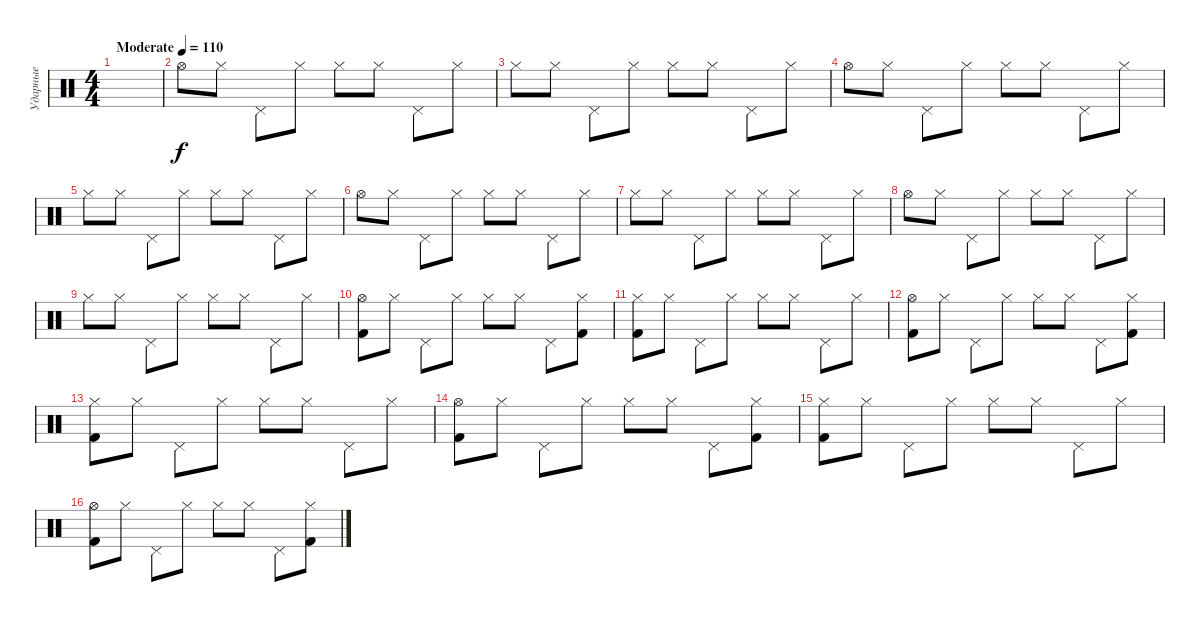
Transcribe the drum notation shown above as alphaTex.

\track ("Ударные" "Ударные") {instrument percussion}
\staff {score}
\articulation defaults
\ts (4 4)
\tempo (110 "Moderate")
\clef neutral
\ks c
|
"Hi-Hat (open)".8 "Hi-Hat (closed)".8 "Pedal Hi-Hat (hit)".8 "Hi-Hat (closed)".8 "Hi-Hat (closed)".8 "Hi-Hat (closed)".8 "Pedal Hi-Hat (hit)".8 "Hi-Hat (closed)".8 |
"Hi-Hat (closed)".8 "Hi-Hat (closed)".8 "Pedal Hi-Hat (hit)".8 "Hi-Hat (closed)".8 "Hi-Hat (closed)".8 "Hi-Hat (closed)".8 "Pedal Hi-Hat (hit)".8 "Hi-Hat (closed)".8 |
"Hi-Hat (open)".8 "Hi-Hat (closed)".8 "Pedal Hi-Hat (hit)".8 "Hi-Hat (closed)".8 "Hi-Hat (closed)".8 "Hi-Hat (closed)".8 "Pedal Hi-Hat (hit)".8 "Hi-Hat (closed)".8 |
"Hi-Hat (closed)".8 "Hi-Hat (closed)".8 "Pedal Hi-Hat (hit)".8 "Hi-Hat (closed)".8 "Hi-Hat (closed)".8 "Hi-Hat (closed)".8 "Pedal Hi-Hat (hit)".8 "Hi-Hat (closed)".8 |
"Hi-Hat (open)".8 "Hi-Hat (closed)".8 "Pedal Hi-Hat (hit)".8 "Hi-Hat (closed)".8 "Hi-Hat (closed)".8 "Hi-Hat (closed)".8 "Pedal Hi-Hat (hit)".8 "Hi-Hat (closed)".8 |
"Hi-Hat (closed)".8 "Hi-Hat (closed)".8 "Pedal Hi-Hat (hit)".8 "Hi-Hat (closed)".8 "Hi-Hat (closed)".8 "Hi-Hat (closed)".8 "Pedal Hi-Hat (hit)".8 "Hi-Hat (closed)".8 |
"Hi-Hat (open)".8 "Hi-Hat (closed)".8 "Pedal Hi-Hat (hit)".8 "Hi-Hat (closed)".8 "Hi-Hat (closed)".8 "Hi-Hat (closed)".8 "Pedal Hi-Hat (hit)".8 "Hi-Hat (closed)".8 |
"Hi-Hat (closed)".8 "Hi-Hat (closed)".8 "Pedal Hi-Hat (hit)".8 "Hi-Hat (closed)".8 "Hi-Hat (closed)".8 "Hi-Hat (closed)".8 "Pedal Hi-Hat (hit)".8 "Hi-Hat (closed)".8 |
("Kick (hit) 2" "Hi-Hat (open)").8 "Hi-Hat (closed)".8 "Pedal Hi-Hat (hit)".8 "Hi-Hat (closed)".8 "Hi-Hat (closed)".8 "Hi-Hat (closed)".8 "Pedal Hi-Hat (hit)".8 ("Hi-Hat (closed)" "Kick (hit) 2").8 |
("Hi-Hat (closed)" "Kick (hit) 2").8 "Hi-Hat (closed)".8 "Pedal Hi-Hat (hit)".8 "Hi-Hat (closed)".8 "Hi-Hat (closed)".8 "Hi-Hat (closed)".8 "Pedal Hi-Hat (hit)".8 "Hi-Hat (closed)".8 |
("Kick (hit) 2" "Hi-Hat (open)").8 "Hi-Hat (closed)".8 "Pedal Hi-Hat (hit)".8 "Hi-Hat (closed)".8 "Hi-Hat (closed)".8 "Hi-Hat (closed)".8 "Pedal Hi-Hat (hit)".8 ("Hi-Hat (closed)" "Kick (hit) 2").8 |
("Hi-Hat (closed)" "Kick (hit) 2").8 "Hi-Hat (closed)".8 "Pedal Hi-Hat (hit)".8 "Hi-Hat (closed)".8 "Hi-Hat (closed)".8 "Hi-Hat (closed)".8 "Pedal Hi-Hat (hit)".8 "Hi-Hat (closed)".8 |
("Kick (hit) 2" "Hi-Hat (open)").8 "Hi-Hat (closed)".8 "Pedal Hi-Hat (hit)".8 "Hi-Hat (closed)".8 "Hi-Hat (closed)".8 "Hi-Hat (closed)".8 "Pedal Hi-Hat (hit)".8 ("Hi-Hat (closed)" "Kick (hit) 2").8 |
("Hi-Hat (closed)" "Kick (hit) 2").8 "Hi-Hat (closed)".8 "Pedal Hi-Hat (hit)".8 "Hi-Hat (closed)".8 "Hi-Hat (closed)".8 "Hi-Hat (closed)".8 "Pedal Hi-Hat (hit)".8 "Hi-Hat (closed)".8 |
("Kick (hit) 2" "Hi-Hat (open)").8 "Hi-Hat (closed)".8 "Pedal Hi-Hat (hit)".8 "Hi-Hat (closed)".8 "Hi-Hat (closed)".8 "Hi-Hat (closed)".8 "Pedal Hi-Hat (hit)".8 ("Hi-Hat (closed)" "Kick (hit) 2").8
